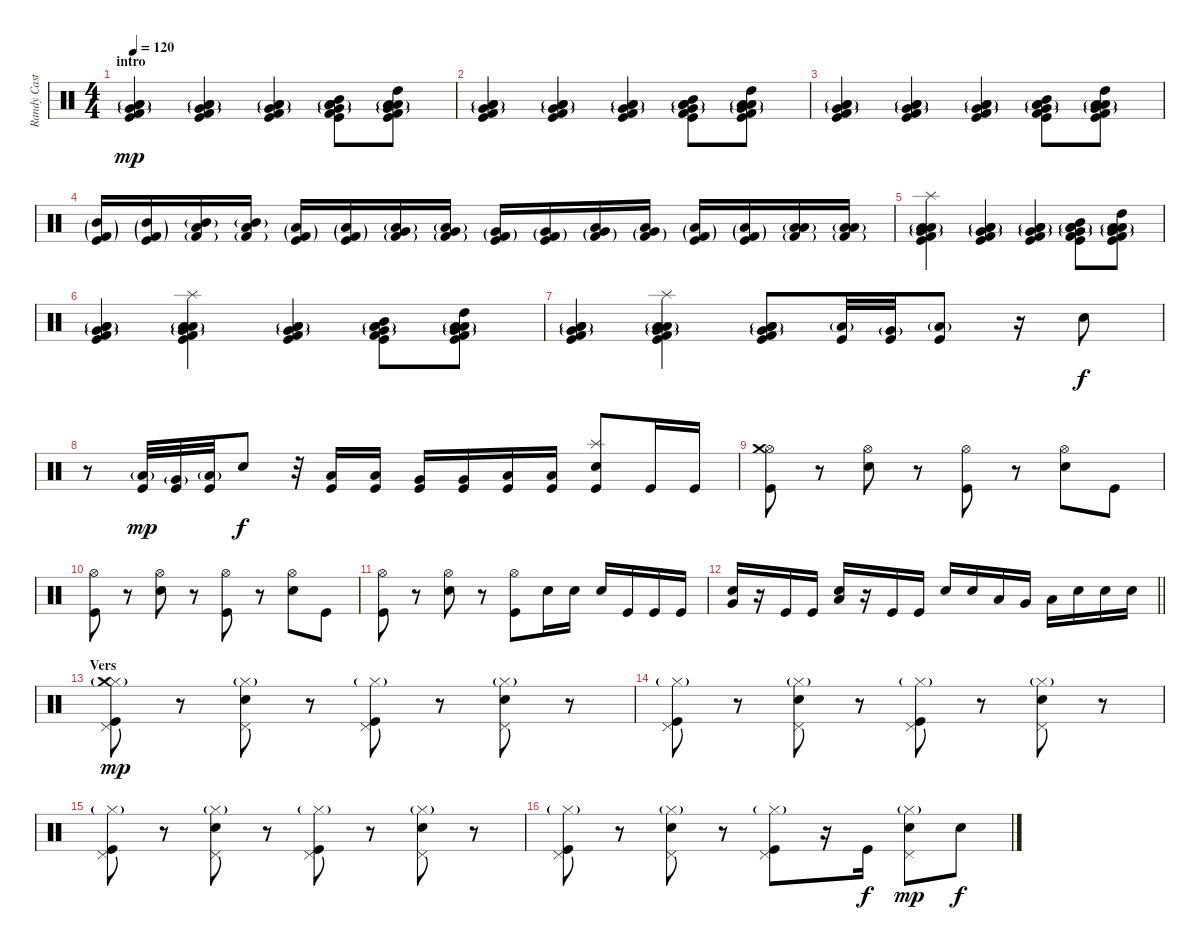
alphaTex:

\track ("Randy Castiello (Dums)" "Randy Cast") {instrument percussion}
\staff {score}
\articulation defaults
\ts (4 4)
\section ("" "intro")
\tempo 120
\clef neutral
\ks c
("Low Tom (hit)"{g} "Very Low Tom (hit)"{g} "Low Floor Tom (hit)" "Kick (hit) 2" "Kick (hit)").4{dy mp} ("Low Tom (hit)"{g} "Very Low Tom (hit)"{g} "Low Floor Tom (hit)" "Kick (hit) 2" "Kick (hit)").4 ("Low Tom (hit)"{g} "Very Low Tom (hit)"{g} "Low Floor Tom (hit)" "Kick (hit) 2" "Kick (hit)").4 ("Mid Tom (hit)" "Low Tom (hit)"{g} "Very Low Tom (hit)"{g} "Low Floor Tom (hit)" "Kick (hit) 2" "Kick (hit)").8 ("High Tom (hit)" "Low Tom (hit)"{g} "Very Low Tom (hit)"{g} "Low Floor Tom (hit)" "Kick (hit) 2" "Kick (hit)").8 |
("Low Tom (hit)"{g} "Very Low Tom (hit)"{g} "Low Floor Tom (hit)" "Kick (hit) 2" "Kick (hit)").4 ("Low Tom (hit)"{g} "Very Low Tom (hit)"{g} "Low Floor Tom (hit)" "Kick (hit) 2" "Kick (hit)").4 ("Low Tom (hit)"{g} "Very Low Tom (hit)"{g} "Low Floor Tom (hit)" "Kick (hit) 2" "Kick (hit)").4 ("Mid Tom (hit)" "Low Tom (hit)"{g} "Very Low Tom (hit)"{g} "Low Floor Tom (hit)" "Kick (hit) 2" "Kick (hit)").8 ("High Tom (hit)" "Low Tom (hit)"{g} "Very Low Tom (hit)"{g} "Low Floor Tom (hit)" "Kick (hit) 2" "Kick (hit)").8 |
("Low Tom (hit)"{g} "Very Low Tom (hit)"{g} "Low Floor Tom (hit)" "Kick (hit) 2" "Kick (hit)").4 ("Low Tom (hit)"{g} "Very Low Tom (hit)"{g} "Low Floor Tom (hit)" "Kick (hit) 2" "Kick (hit)").4 ("Low Tom (hit)"{g} "Very Low Tom (hit)"{g} "Low Floor Tom (hit)" "Kick (hit) 2" "Kick (hit)").4 ("Mid Tom (hit)" "Low Tom (hit)"{g} "Very Low Tom (hit)"{g} "Low Floor Tom (hit)" "Kick (hit) 2" "Kick (hit)").8 ("High Tom (hit)" "Low Tom (hit)"{g} "Very Low Tom (hit)"{g} "Low Floor Tom (hit)" "Kick (hit) 2" "Kick (hit)").8 |
("Mid Tom (hit)"{g} "Kick (hit) 2"{g} "Kick (hit)").16 ("Mid Tom (hit)"{g} "Kick (hit) 2"{g} "Kick (hit)").16 ("Mid Tom (hit)"{g} "Kick (hit) 2"{g} "Low Tom (hit)").16 ("Mid Tom (hit)"{g} "Kick (hit) 2"{g} "Low Tom (hit)").16 ("Low Tom (hit)"{g} "Kick (hit) 2"{g} "Kick (hit)").16 ("Low Tom (hit)"{g} "Kick (hit) 2"{g} "Kick (hit)").16 ("Low Tom (hit)"{g} "Kick (hit) 2"{g} "Very Low Tom (hit)").16 ("Low Tom (hit)"{g} "Kick (hit) 2"{g} "Very Low Tom (hit)").16 ("Very Low Tom (hit)"{g} "Kick (hit) 2"{g} "Kick (hit)").16 ("Very Low Tom (hit)"{g} "Kick (hit) 2"{g} "Kick (hit)").16 ("Very Low Tom (hit)"{g} "Kick (hit) 2"{g} "Low Floor Tom (hit)").16 ("Very Low Tom (hit)"{g} "Kick (hit) 2"{g} "Low Floor Tom (hit)").16 ("Low Floor Tom (hit)"{g} "Kick (hit) 2"{g} "Kick (hit)").16 ("Low Floor Tom (hit)"{g} "Kick (hit) 2"{g} "Kick (hit)").16 ("Low Floor Tom (hit)"{g} "Kick (hit) 2"{g} "Low Floor Tom (hit)").16 ("Low Floor Tom (hit)"{g} "Kick (hit) 2"{g} "Low Floor Tom (hit)").16 |
("Splash (hit)" "Low Tom (hit)"{g} "Very Low Tom (hit)"{g} "Low Floor Tom (hit)" "Kick (hit) 2" "Kick (hit)").4 ("Low Tom (hit)"{g} "Very Low Tom (hit)"{g} "Low Floor Tom (hit)" "Kick (hit) 2" "Kick (hit)").4 ("Low Tom (hit)"{g} "Very Low Tom (hit)"{g} "Low Floor Tom (hit)" "Kick (hit) 2" "Kick (hit)").4 ("Mid Tom (hit)" "Low Tom (hit)"{g} "Very Low Tom (hit)"{g} "Low Floor Tom (hit)" "Kick (hit) 2" "Kick (hit)").8 ("High Tom (hit)" "Low Tom (hit)"{g} "Very Low Tom (hit)"{g} "Low Floor Tom (hit)" "Kick (hit) 2" "Kick (hit)").8 |
("Low Tom (hit)"{g} "Very Low Tom (hit)"{g} "Low Floor Tom (hit)" "Kick (hit) 2" "Kick (hit)").4 ("Splash (hit)" "Low Tom (hit)"{g} "Very Low Tom (hit)"{g} "Low Floor Tom (hit)" "Kick (hit) 2" "Kick (hit)").4 ("Low Tom (hit)"{g} "Very Low Tom (hit)"{g} "Low Floor Tom (hit)" "Kick (hit) 2" "Kick (hit)").4 ("Mid Tom (hit)" "Low Tom (hit)"{g} "Very Low Tom (hit)"{g} "Low Floor Tom (hit)" "Kick (hit) 2" "Kick (hit)").8 ("High Tom (hit)" "Low Tom (hit)"{g} "Very Low Tom (hit)"{g} "Low Floor Tom (hit)" "Kick (hit) 2" "Kick (hit)").8 |
("Low Tom (hit)"{g} "Very Low Tom (hit)"{g} "Low Floor Tom (hit)" "Kick (hit) 2" "Kick (hit)").4 ("Splash (hit)" "Low Tom (hit)"{g} "Very Low Tom (hit)"{g} "Low Floor Tom (hit)" "Kick (hit) 2" "Kick (hit)").4 ("Low Tom (hit)"{g} "Very Low Tom (hit)"{g} "Low Floor Tom (hit)" "Kick (hit) 2" "Kick (hit)").8 ("Low Tom (hit)"{g} "Kick (hit)").32 ("Very Low Tom (hit)"{g} "Kick (hit)").32 ("Low Floor Tom (hit)"{g} "Kick (hit)").8 r.16 "Snare (hit) 2".8{dy f} |
r.8 ("Low Tom (hit)"{g} "Kick (hit)").32{dy mp} ("Very Low Tom (hit)"{g} "Kick (hit)").32 ("Low Floor Tom (hit)"{g} "Kick (hit)").32 "Snare (hit) 2".8{dy f} r.32 ("Low Tom (hit)" "Kick (hit)").16 ("Low Tom (hit)" "Kick (hit)").16 ("Very Low Tom (hit)" "Kick (hit)").16 ("Very Low Tom (hit)" "Kick (hit)").16 ("Low Floor Tom (hit)" "Kick (hit)").16 ("Low Floor Tom (hit)" "Kick (hit)").16 ("Splash (hit)" "Snare (hit) 2" "Kick (hit)").8 "Kick (hit)".16 "Kick (hit)".16 |
("Hi-Hat (open)" "Crash medium (hit)" "Kick (hit)").8 r.8 ("Hi-Hat (open)" "Snare (hit) 2").8 r.8 ("Hi-Hat (open)" "Kick (hit)").8 r.8 ("Hi-Hat (open)" "Snare (hit) 2").8 "Kick (hit)".8 |
("Hi-Hat (open)" "Kick (hit)").8 r.8 ("Hi-Hat (open)" "Snare (hit) 2").8 r.8 ("Hi-Hat (open)" "Kick (hit)").8 r.8 ("Hi-Hat (open)" "Snare (hit) 2").8 "Kick (hit)".8 |
("Hi-Hat (open)" "Kick (hit)").8 r.8 ("Hi-Hat (open)" "Snare (hit) 2").8 r.8 ("Hi-Hat (open)" "Kick (hit)").8 "Snare (hit) 2".16 "Snare (hit) 2".16 "Snare (hit) 2".16 "Kick (hit)".16 "Kick (hit)".16 "Kick (hit)".16 |
\barLineRight lightlight
("Very Low Tom (hit)" "Snare (hit) 2").16 r.16 "Kick (hit)".16 "Kick (hit)".16 ("Low Floor Tom (hit)" "Snare (hit) 2").16 r.16 "Kick (hit)".16 "Kick (hit)".16 "Snare (hit) 2".16 "Snare (hit) 2".16 "Low Tom (hit)".16 "Very Low Tom (hit)".16 "Low Floor Tom (hit)".16 "Snare (hit) 2".16 "Snare (hit) 2".16 "Snare (hit) 2".16 |
\section ("" "Vers")
("Pedal Hi-Hat (hit)" "Hi-Hat (closed)"{g} "Crash medium (hit)" "Kick (hit)").8{dy mp} r.8 ("Pedal Hi-Hat (hit)" "Hi-Hat (closed)"{g} "Snare (hit) 2").8 r.8 ("Pedal Hi-Hat (hit)" "Hi-Hat (closed)"{g} "Kick (hit)").8 r.8 ("Pedal Hi-Hat (hit)" "Hi-Hat (closed)"{g} "Snare (hit) 2").8 r.8 |
("Pedal Hi-Hat (hit)" "Hi-Hat (closed)"{g} "Kick (hit)").8 r.8 ("Pedal Hi-Hat (hit)" "Hi-Hat (closed)"{g} "Snare (hit) 2").8 r.8 ("Pedal Hi-Hat (hit)" "Hi-Hat (closed)"{g} "Kick (hit)").8 r.8 ("Pedal Hi-Hat (hit)" "Hi-Hat (closed)"{g} "Snare (hit) 2").8 r.8 |
("Pedal Hi-Hat (hit)" "Hi-Hat (closed)"{g} "Kick (hit)").8 r.8 ("Pedal Hi-Hat (hit)" "Hi-Hat (closed)"{g} "Snare (hit) 2").8 r.8 ("Pedal Hi-Hat (hit)" "Hi-Hat (closed)"{g} "Kick (hit)").8 r.8 ("Pedal Hi-Hat (hit)" "Hi-Hat (closed)"{g} "Snare (hit) 2").8 r.8 |
("Pedal Hi-Hat (hit)" "Hi-Hat (closed)"{g} "Kick (hit)").8 r.8 ("Pedal Hi-Hat (hit)" "Hi-Hat (closed)"{g} "Snare (hit) 2").8 r.8 ("Pedal Hi-Hat (hit)" "Hi-Hat (closed)"{g} "Kick (hit)").8 r.16 "Kick (hit)".16{dy f} ("Pedal Hi-Hat (hit)" "Hi-Hat (closed)"{g} "Snare (hit) 2").8{dy mp} "Snare (hit) 2".8{dy f}
